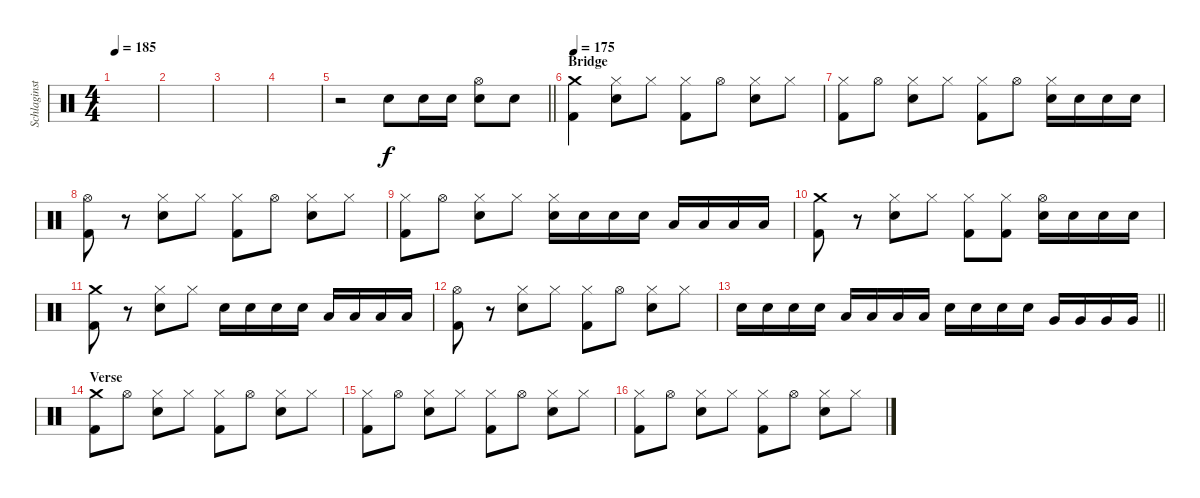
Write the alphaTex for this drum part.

\track ("Schlaginstrumente - Auswahl" "Schlaginst") {instrument percussion}
\staff {score}
\articulation defaults
\ts (4 4)
\tempo 185
\clef neutral
\ks c
|
|
|
|
\barLineRight lightlight
r.2 "Snare (hit) 2".8 "Snare (hit) 2".16 "Snare (hit) 2".16 ("Hi-Hat (open)" "Snare (hit) 2").8 "Snare (hit) 2".8 |
\section ("" "Bridge")
\tempo 175
("Crash medium (hit)" "Kick (hit) 2").4 ("Hi-Hat (closed)" "Snare (hit) 2").8 "Hi-Hat (closed)".8 ("Hi-Hat (closed)" "Kick (hit) 2").8 "Hi-Hat (open)".8 ("Hi-Hat (closed)" "Snare (hit) 2").8 "Hi-Hat (closed)".8 |
("Hi-Hat (closed)" "Kick (hit) 2").8 "Hi-Hat (open)".8 ("Hi-Hat (closed)" "Snare (hit) 2").8 "Hi-Hat (closed)".8 ("Hi-Hat (closed)" "Kick (hit) 2").8 "Hi-Hat (open)".8 ("Hi-Hat (closed)" "Snare (hit) 2").16 "Snare (hit) 2".16 "Snare (hit) 2".16 "Snare (hit) 2".16 |
("Hi-Hat (open)" "Kick (hit) 2").8 r.8 ("Hi-Hat (closed)" "Snare (hit) 2").8 "Hi-Hat (closed)".8 ("Hi-Hat (closed)" "Kick (hit) 2").8 "Hi-Hat (open)".8 ("Hi-Hat (closed)" "Snare (hit) 2").8 "Hi-Hat (closed)".8 |
("Hi-Hat (closed)" "Kick (hit) 2").8 "Hi-Hat (open)".8 ("Hi-Hat (closed)" "Snare (hit) 2").8 "Hi-Hat (closed)".8 ("Hi-Hat (closed)" "Snare (hit) 2").16 "Snare (hit) 2".16 "Snare (hit) 2".16 "Snare (hit) 2".16 "Low Tom (hit)".16 "Low Tom (hit)".16 "Low Tom (hit)".16 "Low Tom (hit)".16 |
("Crash medium (hit)" "Kick (hit) 2").8 r.8 ("Hi-Hat (closed)" "Snare (hit) 2").8 "Hi-Hat (closed)".8 ("Hi-Hat (closed)" "Kick (hit) 2").8 ("Hi-Hat (closed)" "Kick (hit) 2").8 ("Hi-Hat (open)" "Snare (hit) 2").16 "Snare (hit) 2".16 "Snare (hit) 2".16 "Snare (hit) 2".16 |
("Crash medium (hit)" "Kick (hit) 2").8 r.8 ("Hi-Hat (closed)" "Snare (hit) 2").8 "Hi-Hat (closed)".8 "Snare (hit) 2".16 "Snare (hit) 2".16 "Snare (hit) 2".16 "Snare (hit) 2".16 "Low Tom (hit)".16 "Low Tom (hit)".16 "Low Tom (hit)".16 "Low Tom (hit)".16 |
("Hi-Hat (open)" "Kick (hit) 2").8 r.8 ("Hi-Hat (closed)" "Snare (hit) 2").8 "Hi-Hat (closed)".8 ("Hi-Hat (closed)" "Kick (hit) 2").8 "Hi-Hat (open)".8 ("Hi-Hat (closed)" "Snare (hit) 2").8 "Hi-Hat (closed)".8 |
\barLineRight lightlight "Snare (hit) 2".16 "Snare (hit) 2".16 "Snare (hit) 2".16 "Snare (hit) 2".16 "Low Tom (hit)".16 "Low Tom (hit)".16 "Low Tom (hit)".16 "Low Tom (hit)".16 "Snare (hit) 2".16 "Snare (hit) 2".16 "Snare (hit) 2".16 "Snare (hit) 2".16 "Very Low Tom (hit)".16 "Very Low Tom (hit)".16 "Very Low Tom (hit)".16 "Very Low Tom (hit)".16
|
\section ("" "Verse")
("Crash medium (hit)" "Kick (hit) 2").8 "Hi-Hat (open)".8 ("Hi-Hat (closed)" "Snare (hit) 2").8 "Hi-Hat (closed)".8 ("Hi-Hat (closed)" "Kick (hit) 2").8 "Hi-Hat (open)".8 ("Hi-Hat (closed)" "Snare (hit) 2").8 "Hi-Hat (closed)".8 |
("Hi-Hat (closed)" "Kick (hit) 2").8 "Hi-Hat (open)".8 ("Hi-Hat (closed)" "Snare (hit) 2").8 "Hi-Hat (closed)".8 ("Hi-Hat (closed)" "Kick (hit) 2").8 "Hi-Hat (open)".8 ("Hi-Hat (closed)" "Snare (hit) 2").8 "Hi-Hat (closed)".8 |
("Hi-Hat (closed)" "Kick (hit) 2").8 "Hi-Hat (open)".8 ("Hi-Hat (closed)" "Snare (hit) 2").8 "Hi-Hat (closed)".8 ("Hi-Hat (closed)" "Kick (hit) 2").8 "Hi-Hat (open)".8 ("Hi-Hat (closed)" "Snare (hit) 2").8 "Hi-Hat (closed)".8
